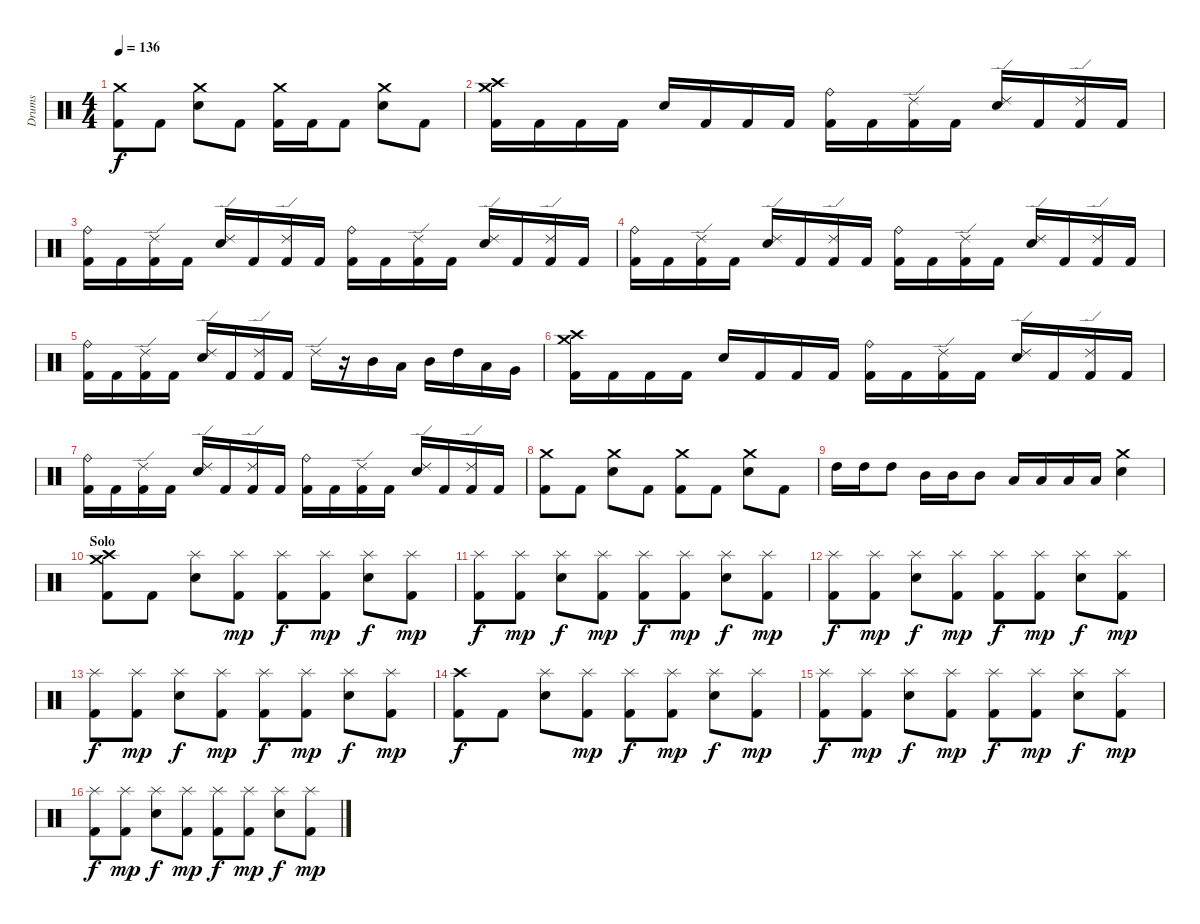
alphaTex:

\track ("Drums" "Drums") {instrument percussion}
\staff {score}
\articulation defaults
\ts (4 4)
\tempo 136
\clef neutral
\ks c
("Crash medium (hit)" "Kick (hit) 2").8{dy f} "Kick (hit) 2".8 ("Crash medium (hit)" "Electric Snare (hit)").8 "Kick (hit) 2".8 ("Crash medium (hit)" "Kick (hit) 2").16 "Kick (hit) 2".16 "Kick (hit) 2".8 ("Crash medium (hit)" "Electric Snare (hit)").8 "Kick (hit) 2".8 |
("Crash medium (hit)" "Crash high (hit)" "Kick (hit) 2").16 "Kick (hit) 2".16 "Kick (hit) 2".16 "Kick (hit) 2".16 "Electric Snare (hit)".16 "Kick (hit) 2".16 "Kick (hit) 2".16 "Kick (hit) 2".16 ("Ride (bell)" "Kick (hit) 2").16 "Kick (hit) 2".16 ("Ride (edge) 2" "Kick (hit) 2").16 "Kick (hit) 2".16 ("Ride (edge) 2" "Electric Snare (hit)").16 "Kick (hit) 2".16 ("Ride (edge) 2" "Kick (hit) 2").16 "Kick (hit) 2".16 |
("Ride (bell)" "Kick (hit) 2").16 "Kick (hit) 2".16 ("Ride (edge) 2" "Kick (hit) 2").16 "Kick (hit) 2".16 ("Ride (edge) 2" "Electric Snare (hit)").16 "Kick (hit) 2".16 ("Ride (edge) 2" "Kick (hit) 2").16 "Kick (hit) 2".16 ("Ride (bell)" "Kick (hit) 2").16 "Kick (hit) 2".16 ("Ride (edge) 2" "Kick (hit) 2").16 "Kick (hit) 2".16 ("Ride (edge) 2" "Electric Snare (hit)").16 "Kick (hit) 2".16 ("Ride (edge) 2" "Kick (hit) 2").16 "Kick (hit) 2".16 |
("Ride (bell)" "Kick (hit) 2").16 "Kick (hit) 2".16 ("Ride (edge) 2" "Kick (hit) 2").16 "Kick (hit) 2".16 ("Ride (edge) 2" "Electric Snare (hit)").16 "Kick (hit) 2".16 ("Ride (edge) 2" "Kick (hit) 2").16 "Kick (hit) 2".16 ("Ride (bell)" "Kick (hit) 2").16 "Kick (hit) 2".16 ("Ride (edge) 2" "Kick (hit) 2").16 "Kick (hit) 2".16 ("Ride (edge) 2" "Electric Snare (hit)").16 "Kick (hit) 2".16 ("Ride (edge) 2" "Kick (hit) 2").16 "Kick (hit) 2".16 |
("Ride (bell)" "Kick (hit) 2").16 "Kick (hit) 2".16 ("Ride (edge) 2" "Kick (hit) 2").16 "Kick (hit) 2".16 ("Ride (edge) 2" "Electric Snare (hit)").16 "Kick (hit) 2".16 ("Ride (edge) 2" "Kick (hit) 2").16 "Kick (hit) 2".16 "Ride (edge) 2".16 r.16 "Mid Tom (hit)".16 "Low Tom (hit)".16 "Mid Tom (hit)".16 "High Tom (hit)".16 "Low Tom (hit)".16 "Very Low Tom (hit)".16 |
("Crash medium (hit)" "Crash high (hit)" "Kick (hit) 2").16 "Kick (hit) 2".16 "Kick (hit) 2".16 "Kick (hit) 2".16 "Electric Snare (hit)".16 "Kick (hit) 2".16 "Kick (hit) 2".16 "Kick (hit) 2".16 ("Ride (bell)" "Kick (hit) 2").16 "Kick (hit) 2".16 ("Ride (edge) 2" "Kick (hit) 2").16 "Kick (hit) 2".16 ("Ride (edge) 2" "Electric Snare (hit)").16 "Kick (hit) 2".16 ("Ride (edge) 2" "Kick (hit) 2").16 "Kick (hit) 2".16 |
("Ride (bell)" "Kick (hit) 2").16 "Kick (hit) 2".16 ("Ride (edge) 2" "Kick (hit) 2").16 "Kick (hit) 2".16 ("Ride (edge) 2" "Electric Snare (hit)").16 "Kick (hit) 2".16 ("Ride (edge) 2" "Kick (hit) 2").16 "Kick (hit) 2".16 ("Ride (bell)" "Kick (hit) 2").16 "Kick (hit) 2".16 ("Ride (edge) 2" "Kick (hit) 2").16 "Kick (hit) 2".16 ("Ride (edge) 2" "Electric Snare (hit)").16 "Kick (hit) 2".16 ("Ride (edge) 2" "Kick (hit) 2").16 "Kick (hit) 2".16 |
("Crash medium (hit)" "Kick (hit) 2").8 "Kick (hit) 2".8 ("Crash medium (hit)" "Electric Snare (hit)").8 "Kick (hit) 2".8 ("Crash medium (hit)" "Kick (hit) 2").8 "Kick (hit) 2".8 ("Crash medium (hit)" "Electric Snare (hit)").8 "Kick (hit) 2".8 |
"High Tom (hit)".16 "High Tom (hit)".16 "High Tom (hit)".8 "Mid Tom (hit)".16 "Mid Tom (hit)".16 "Mid Tom (hit)".8 "Low Tom (hit)".16 "Low Tom (hit)".16 "Low Tom (hit)".16 "Low Tom (hit)".16 ("Crash medium (hit)" "Electric Snare (hit)").4 |
\section ("" "Solo")
("Crash medium (hit)" "Crash high (hit)" "Kick (hit) 2").8 "Kick (hit) 2".8 ("Splash (hit)" "Electric Snare (hit)").8 ("Splash (hit)" "Kick (hit) 2").8{dy mp} ("Splash (hit)" "Kick (hit) 2").8{dy f} ("Splash (hit)" "Kick (hit) 2").8{dy mp} ("Splash (hit)" "Electric Snare (hit)").8{dy f} ("Splash (hit)" "Kick (hit) 2").8{dy mp} |
("Splash (hit)" "Kick (hit) 2").8{dy f} ("Splash (hit)" "Kick (hit) 2").8{dy mp} ("Splash (hit)" "Electric Snare (hit)").8{dy f} ("Splash (hit)" "Kick (hit) 2").8{dy mp} ("Splash (hit)" "Kick (hit) 2").8{dy f} ("Splash (hit)" "Kick (hit) 2").8{dy mp} ("Splash (hit)" "Electric Snare (hit)").8{dy f} ("Splash (hit)" "Kick (hit) 2").8{dy mp} |
("Splash (hit)" "Kick (hit) 2").8{dy f} ("Splash (hit)" "Kick (hit) 2").8{dy mp} ("Splash (hit)" "Electric Snare (hit)").8{dy f} ("Splash (hit)" "Kick (hit) 2").8{dy mp} ("Splash (hit)" "Kick (hit) 2").8{dy f} ("Splash (hit)" "Kick (hit) 2").8{dy mp} ("Splash (hit)" "Electric Snare (hit)").8{dy f} ("Splash (hit)" "Kick (hit) 2").8{dy mp} |
("Splash (hit)" "Kick (hit) 2").8{dy f} ("Splash (hit)" "Kick (hit) 2").8{dy mp} ("Splash (hit)" "Electric Snare (hit)").8{dy f} ("Splash (hit)" "Kick (hit) 2").8{dy mp} ("Splash (hit)" "Kick (hit) 2").8{dy f} ("Splash (hit)" "Kick (hit) 2").8{dy mp} ("Splash (hit)" "Electric Snare (hit)").8{dy f} ("Splash (hit)" "Kick (hit) 2").8{dy mp} |
("Crash high (hit)" "Kick (hit) 2").8{dy f} "Kick (hit) 2".8 ("Splash (hit)" "Electric Snare (hit)").8 ("Splash (hit)" "Kick (hit) 2").8{dy mp} ("Splash (hit)" "Kick (hit) 2").8{dy f} ("Splash (hit)" "Kick (hit) 2").8{dy mp} ("Splash (hit)" "Electric Snare (hit)").8{dy f} ("Splash (hit)" "Kick (hit) 2").8{dy mp} |
("Splash (hit)" "Kick (hit) 2").8{dy f} ("Splash (hit)" "Kick (hit) 2").8{dy mp} ("Splash (hit)" "Electric Snare (hit)").8{dy f} ("Splash (hit)" "Kick (hit) 2").8{dy mp} ("Splash (hit)" "Kick (hit) 2").8{dy f} ("Splash (hit)" "Kick (hit) 2").8{dy mp} ("Splash (hit)" "Electric Snare (hit)").8{dy f} ("Splash (hit)" "Kick (hit) 2").8{dy mp} |
("Splash (hit)" "Kick (hit) 2").8{dy f} ("Splash (hit)" "Kick (hit) 2").8{dy mp} ("Splash (hit)" "Electric Snare (hit)").8{dy f} ("Splash (hit)" "Kick (hit) 2").8{dy mp} ("Splash (hit)" "Kick (hit) 2").8{dy f} ("Splash (hit)" "Kick (hit) 2").8{dy mp} ("Splash (hit)" "Electric Snare (hit)").8{dy f} ("Splash (hit)" "Kick (hit) 2").8{dy mp}
